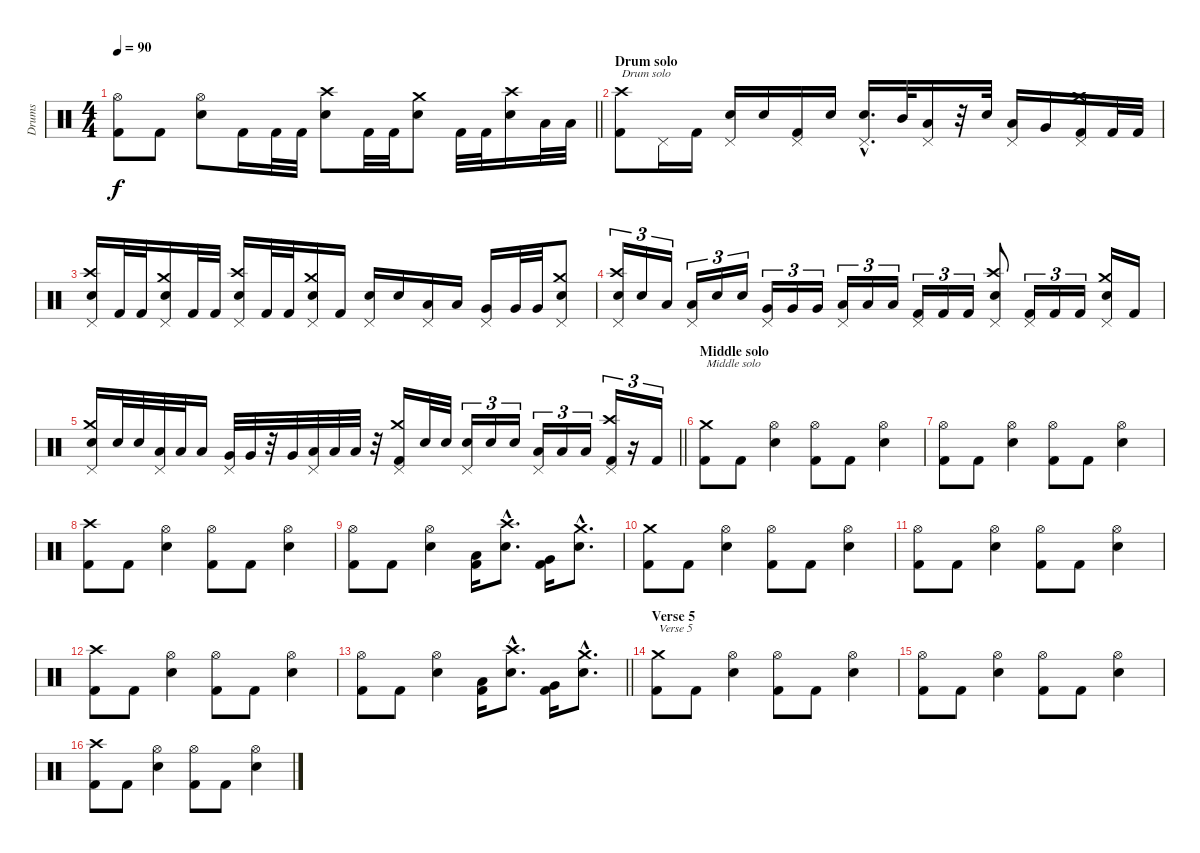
\track ("Drums" "Drums") {instrument percussion}
\staff {score}
\articulation defaults
\ts (4 4)
\tempo 90
\clef neutral
\barLineRight lightlight
\ks c
("Kick (hit) 2" "Hi-Hat (open)").8{dy f} "Kick (hit) 2".8 ("Snare (hit) 2" "Hi-Hat (open)").8 "Kick (hit) 2".16 "Kick (hit) 2".32 "Kick (hit) 2".32 ("Snare (hit) 2" "Crash high (hit)").8 "Kick (hit) 2".32 "Kick (hit) 2".32 ("Snare (hit) 2" "Crash medium (hit)").8 "Kick (hit) 2".32 "Kick (hit) 2".32 ("Snare (hit) 2" "Crash high (hit)").16 "Low Tom (hit)".32 "Low Tom (hit)".32 |
\section ("" "Drum solo")
("Kick (hit) 2" "Crash high (hit)").8{txt "Drum solo"} "Pedal Hi-Hat (hit)".16 "Kick (hit) 2".16 ("Snare (hit) 2" "Pedal Hi-Hat (hit)").16 "Snare (hit) 2".16 ("Kick (hit) 2" "Pedal Hi-Hat (hit)").16 "Snare (hit) 2".16 ("Snare (hit) 2"{hac} "Pedal Hi-Hat (hit)"{hac}).16{d} "Mid Tom (hit)".32 ("Low Tom (hit)" "Pedal Hi-Hat (hit)").16 r.32 "Snare (hit) 2".32 ("Low Tom (hit)" "Pedal Hi-Hat (hit)").16 "Very Low Tom (hit)".16 ("Kick (hit) 2" "Crash medium (hit)" "Pedal Hi-Hat (hit)").16 "Kick (hit) 2".32 "Kick (hit) 2".32 |
("Snare (hit) 2" "Pedal Hi-Hat (hit)" "Crash high (hit)").16 "Kick (hit) 2".32 "Kick (hit) 2".32 ("Snare (hit) 2" "Pedal Hi-Hat (hit)" "Crash medium (hit)").16 "Kick (hit) 2".32 "Kick (hit) 2".32 ("Snare (hit) 2" "Pedal Hi-Hat (hit)" "Crash high (hit)").16 "Kick (hit) 2".32 "Kick (hit) 2".32 ("Snare (hit) 2" "Pedal Hi-Hat (hit)" "Crash medium (hit)").16 "Kick (hit) 2".16 ("Snare (hit) 2" "Pedal Hi-Hat (hit)").16 "Snare (hit) 2".16 ("Low Tom (hit)" "Pedal Hi-Hat (hit)").16 "Low Tom (hit)".16 ("Very Low Tom (hit)" "Pedal Hi-Hat (hit)").16 "Very Low Tom (hit)".32 "Very Low Tom (hit)".32 ("Snare (hit) 2" "Crash medium (hit)" "Pedal Hi-Hat (hit)").8 |
("Snare (hit) 2" "Crash high (hit)" "Pedal Hi-Hat (hit)").16{tu (3 2)} "Snare (hit) 2".16{tu (3 2)} "Low Tom (hit)".16{tu (3 2)} ("Low Tom (hit)" "Pedal Hi-Hat (hit)").16{tu (3 2)} "Snare (hit) 2".16{tu (3 2)} "Snare (hit) 2".16{tu (3 2)} ("Very Low Tom (hit)" "Pedal Hi-Hat (hit)").16{tu (3 2)} "Very Low Tom (hit)".16{tu (3 2)} "Very Low Tom (hit)".16{tu (3 2)} ("Low Floor Tom (hit)" "Pedal Hi-Hat (hit)").16{tu (3 2)} "Low Floor Tom (hit)".16{tu (3 2)} "Low Floor Tom (hit)".16{tu (3 2)} ("Kick (hit) 2" "Pedal Hi-Hat (hit)").16{tu (3 2)} "Kick (hit) 2".16{tu (3 2)} "Kick (hit) 2".16{tu (3 2)} ("Snare (hit) 2" "Crash high (hit)" "Pedal Hi-Hat (hit)").8 ("Kick (hit) 2" "Pedal Hi-Hat (hit)").16{tu (3 2)} "Kick (hit) 2".16{tu (3 2)} "Kick (hit) 2".16{tu (3 2)} ("Snare (hit) 2" "Crash medium (hit)" "Pedal Hi-Hat (hit)").16 "Kick (hit) 2".16 |
\barLineRight lightlight
("Snare (hit) 2" "Crash medium (hit)" "Pedal Hi-Hat (hit)").16 "Snare (hit) 2".32 "Snare (hit) 2".32 ("Low Tom (hit)" "Pedal Hi-Hat (hit)").32 "Low Tom (hit)".32 "Low Tom (hit)".16 ("Very Low Tom (hit)" "Pedal Hi-Hat (hit)").32 "Very Low Tom (hit)".32 r.32 "Very Low Tom (hit)".32 ("Low Floor Tom (hit)" "Pedal Hi-Hat (hit)").32 "Low Floor Tom (hit)".32 "Low Floor Tom (hit)".32 r.32 ("Kick (hit) 2" "Crash medium (hit)" "Pedal Hi-Hat (hit)").16 "Snare (hit) 2".32 "Snare (hit) 2".32 ("Snare (hit) 2" "Pedal Hi-Hat (hit)").16{tu (3 2)} "Snare (hit) 2".16{tu (3 2)} "Snare (hit) 2".16{tu (3 2)} ("Low Tom (hit)" "Pedal Hi-Hat (hit)").16{tu (3 2)} "Low Tom (hit)".16{tu (3 2)} "Low Tom (hit)".16{tu (3 2)} ("Kick (hit) 2" "Crash high (hit)" "Pedal Hi-Hat (hit)").16{tu (3 2)} r.16{tu (3 2)} "Kick (hit) 2".16{tu (3 2)} |
\section ("" "Middle solo")
("Kick (hit) 2" "Crash medium (hit)").8{txt "Middle solo"} "Kick (hit) 2".8 ("Snare (hit) 2" "Hi-Hat (open)").4 ("Kick (hit) 2" "Hi-Hat (open)").8 "Kick (hit) 2".8 ("Snare (hit) 2" "Hi-Hat (open)").4 |
("Kick (hit) 2" "Hi-Hat (open)").8 "Kick (hit) 2".8 ("Snare (hit) 2" "Hi-Hat (open)").4 ("Kick (hit) 2" "Hi-Hat (open)").8 "Kick (hit) 2".8 ("Snare (hit) 2" "Hi-Hat (open)").4 |
("Kick (hit) 2" "Crash high (hit)").8 "Kick (hit) 2".8 ("Snare (hit) 2" "Hi-Hat (open)").4 ("Kick (hit) 2" "Hi-Hat (open)").8 "Kick (hit) 2".8 ("Snare (hit) 2" "Hi-Hat (open)").4 |
("Kick (hit) 2" "Hi-Hat (open)").8 "Kick (hit) 2".8 ("Snare (hit) 2" "Hi-Hat (open)").4 ("Kick (hit) 2" "Low Tom (hit)").16 ("Snare (hit) 2"{hac} "Crash high (hit)"{hac}).8{d} ("Kick (hit) 2" "Very Low Tom (hit)").16 ("Snare (hit) 2"{hac} "Crash medium (hit)"{hac}).8{d} |
("Kick (hit) 2" "Crash medium (hit)").8 "Kick (hit) 2".8 ("Snare (hit) 2" "Hi-Hat (open)").4 ("Kick (hit) 2" "Hi-Hat (open)").8 "Kick (hit) 2".8 ("Snare (hit) 2" "Hi-Hat (open)").4 |
("Kick (hit) 2" "Hi-Hat (open)").8 "Kick (hit) 2".8 ("Snare (hit) 2" "Hi-Hat (open)").4 ("Kick (hit) 2" "Hi-Hat (open)").8 "Kick (hit) 2".8 ("Snare (hit) 2" "Hi-Hat (open)").4 |
("Kick (hit) 2" "Crash high (hit)").8 "Kick (hit) 2".8 ("Snare (hit) 2" "Hi-Hat (open)").4 ("Kick (hit) 2" "Hi-Hat (open)").8 "Kick (hit) 2".8 ("Snare (hit) 2" "Hi-Hat (open)").4 |
\barLineRight lightlight
("Kick (hit) 2" "Hi-Hat (open)").8 "Kick (hit) 2".8 ("Snare (hit) 2" "Hi-Hat (open)").4 ("Kick (hit) 2" "Low Tom (hit)").16 ("Snare (hit) 2"{hac} "Crash high (hit)"{hac}).8{d} ("Kick (hit) 2" "Very Low Tom (hit)").16 ("Snare (hit) 2"{hac} "Crash medium (hit)"{hac}).8{d} |
\section ("" "Verse 5")
("Kick (hit) 2" "Crash medium (hit)").8{txt "Verse 5"} "Kick (hit) 2".8 ("Snare (hit) 2" "Hi-Hat (open)").4 ("Kick (hit) 2" "Hi-Hat (open)").8 "Kick (hit) 2".8 ("Snare (hit) 2" "Hi-Hat (open)").4 |
("Kick (hit) 2" "Hi-Hat (open)").8 "Kick (hit) 2".8 ("Snare (hit) 2" "Hi-Hat (open)").4 ("Kick (hit) 2" "Hi-Hat (open)").8 "Kick (hit) 2".8 ("Snare (hit) 2" "Hi-Hat (open)").4 |
("Kick (hit) 2" "Crash high (hit)").8 "Kick (hit) 2".8 ("Snare (hit) 2" "Hi-Hat (open)").4 ("Kick (hit) 2" "Hi-Hat (open)").8 "Kick (hit) 2".8 ("Snare (hit) 2" "Hi-Hat (open)").4
